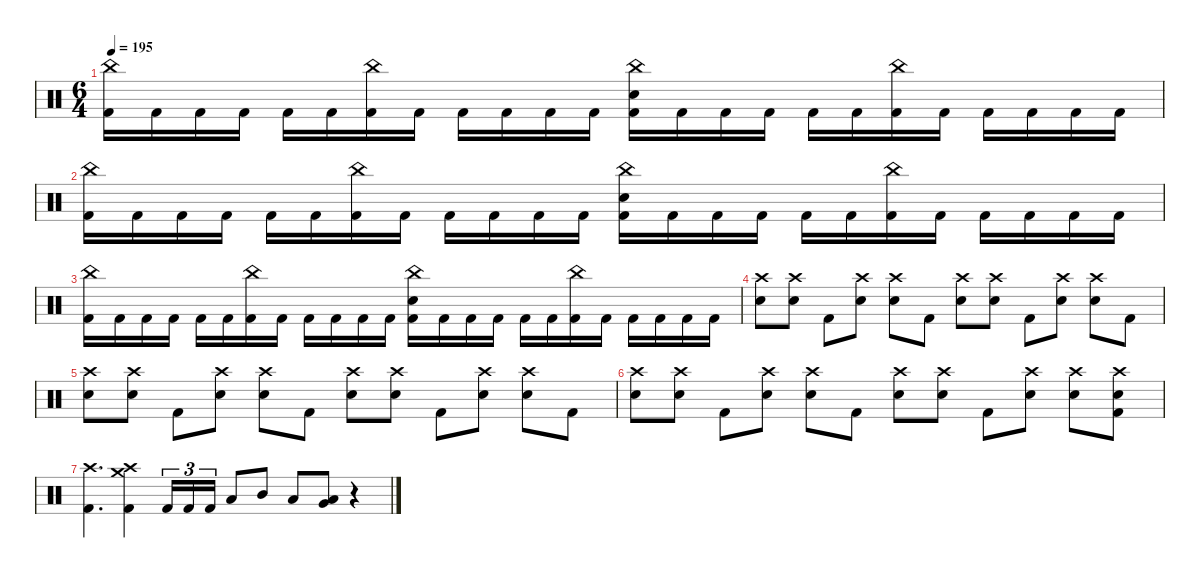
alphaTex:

\defaultSystemsLayout 4
\hideDynamics
\bracketExtendMode nobrackets
\singleTrackTrackNamePolicy hidden
\multiTrackTrackNamePolicy hidden
\firstSystemTrackNameMode fullname
\firstSystemTrackNameOrientation horizontal
\otherSystemsTrackNameOrientation horizontal
\track ("Drums" "drm.") {instrument percussion}
\staff {score}
\articulation defaults
\ts (6 4)
\tempo 195
\clef neutral
\ks c
("China (hit)" "Kick (hit) 2").16{dy f beam Down} "Kick (hit) 2".16{beam Down} "Kick (hit) 2".16{beam Down} "Kick (hit) 2".16{beam Down} "Kick (hit) 2".16{beam Down} "Kick (hit) 2".16{beam Down} ("China (hit)" "Kick (hit) 2").16{beam Down} "Kick (hit) 2".16{beam Down} "Kick (hit) 2".16{beam Down} "Kick (hit) 2".16{beam Down} "Kick (hit) 2".16{beam Down} "Kick (hit) 2".16{beam Down} ("China (hit)" "Snare (hit) 2" "Kick (hit) 2").16{beam Down} "Kick (hit) 2".16{beam Down} "Kick (hit) 2".16{beam Down} "Kick (hit) 2".16{beam Down} "Kick (hit) 2".16{beam Down} "Kick (hit) 2".16{beam Down} ("China (hit)" "Kick (hit) 2").16{beam Down} "Kick (hit) 2".16{beam Down} "Kick (hit) 2".16{beam Down} "Kick (hit) 2".16{beam Down} "Kick (hit) 2".16{beam Down} "Kick (hit) 2".16{beam Down} |
("China (hit)" "Kick (hit) 2").16{beam Down} "Kick (hit) 2".16{beam Down} "Kick (hit) 2".16{beam Down} "Kick (hit) 2".16{beam Down} "Kick (hit) 2".16{beam Down} "Kick (hit) 2".16{beam Down} ("China (hit)" "Kick (hit) 2").16{beam Down} "Kick (hit) 2".16{beam Down} "Kick (hit) 2".16{beam Down} "Kick (hit) 2".16{beam Down} "Kick (hit) 2".16{beam Down} "Kick (hit) 2".16{beam Down} ("China (hit)" "Snare (hit) 2" "Kick (hit) 2").16{beam Down} "Kick (hit) 2".16{beam Down} "Kick (hit) 2".16{beam Down} "Kick (hit) 2".16{beam Down} "Kick (hit) 2".16{beam Down} "Kick (hit) 2".16{beam Down} ("China (hit)" "Kick (hit) 2").16{beam Down} "Kick (hit) 2".16{beam Down} "Kick (hit) 2".16{beam Down} "Kick (hit) 2".16{beam Down} "Kick (hit) 2".16{beam Down} "Kick (hit) 2".16{beam Down} |
("China (hit)" "Kick (hit) 2").16{beam Down} "Kick (hit) 2".16{beam Down} "Kick (hit) 2".16{beam Down} "Kick (hit) 2".16{beam Down} "Kick (hit) 2".16{beam Down} "Kick (hit) 2".16{beam Down} ("China (hit)" "Kick (hit) 2").16{beam Down} "Kick (hit) 2".16{beam Down} "Kick (hit) 2".16{beam Down} "Kick (hit) 2".16{beam Down} "Kick (hit) 2".16{beam Down} "Kick (hit) 2".16{beam Down} ("China (hit)" "Snare (hit) 2" "Kick (hit) 2").16{beam Down} "Kick (hit) 2".16{beam Down} "Kick (hit) 2".16{beam Down} "Kick (hit) 2".16{beam Down} "Kick (hit) 2".16{beam Down} "Kick (hit) 2".16{beam Down} ("China (hit)" "Kick (hit) 2").16{beam Down} "Kick (hit) 2".16{beam Down} "Kick (hit) 2".16{beam Down} "Kick (hit) 2".16{beam Down} "Kick (hit) 2".16{beam Down} "Kick (hit) 2".16{beam Down} |
("Crash high (hit)" "Snare (hit) 2").8{beam Down} ("Crash high (hit)" "Snare (hit) 2").8{beam Down} "Kick (hit) 2".8{beam Down} ("Crash high (hit)" "Snare (hit) 2").8{beam Down} ("Crash high (hit)" "Snare (hit) 2").8{beam Down} "Kick (hit) 2".8{beam Down} ("Crash high (hit)" "Snare (hit) 2").8{beam Down} ("Crash high (hit)" "Snare (hit) 2").8{beam Down} "Kick (hit) 2".8{beam Down} ("Crash high (hit)" "Snare (hit) 2").8{beam Down} ("Crash high (hit)" "Snare (hit) 2").8{beam Down} "Kick (hit) 2".8{beam Down} |
("Crash high (hit)" "Snare (hit) 2").8{beam Down} ("Crash high (hit)" "Snare (hit) 2").8{beam Down} "Kick (hit) 2".8{beam Down} ("Crash high (hit)" "Snare (hit) 2").8{beam Down} ("Crash high (hit)" "Snare (hit) 2").8{beam Down} "Kick (hit) 2".8{beam Down} ("Crash high (hit)" "Snare (hit) 2").8{beam Down} ("Crash high (hit)" "Snare (hit) 2").8{beam Down} "Kick (hit) 2".8{beam Down} ("Crash high (hit)" "Snare (hit) 2").8{beam Down} ("Crash high (hit)" "Snare (hit) 2").8{beam Down} "Kick (hit) 2".8{beam Down} |
("Crash high (hit)" "Snare (hit) 2").8{beam Down} ("Crash high (hit)" "Snare (hit) 2").8{beam Down} "Kick (hit) 2".8{beam Down} ("Crash high (hit)" "Snare (hit) 2").8{beam Down} ("Crash high (hit)" "Snare (hit) 2").8{beam Down} "Kick (hit) 2".8{beam Down} ("Crash high (hit)" "Snare (hit) 2").8{beam Down} ("Crash high (hit)" "Snare (hit) 2").8{beam Down} "Kick (hit) 2".8{beam Down} ("Crash high (hit)" "Snare (hit) 2").8{beam Down} ("Crash high (hit)" "Snare (hit) 2").8{beam Down} ("Crash high (hit)" "Snare (hit) 2" "Kick (hit) 2").8{beam Down} |
("Crash high (hit)" "Kick (hit) 2").4{d beam Down} ("Crash high (hit)" "Crash medium (hit)" "Kick (hit) 2").4{beam Down} "Kick (hit) 2".16{tu (3 2) beam Up} "Kick (hit) 2".16{tu (3 2) beam Up} "Kick (hit) 2".16{tu (3 2) beam Up} "Low Tom (hit)".8{dy fff beam Up} "Mid Tom (hit)".8{beam Up} "Low Tom (hit)".8{beam Up} ("Low Floor Tom (hit)" "Very Low Tom (hit)").8{beam Up} r.4{beam Up}
